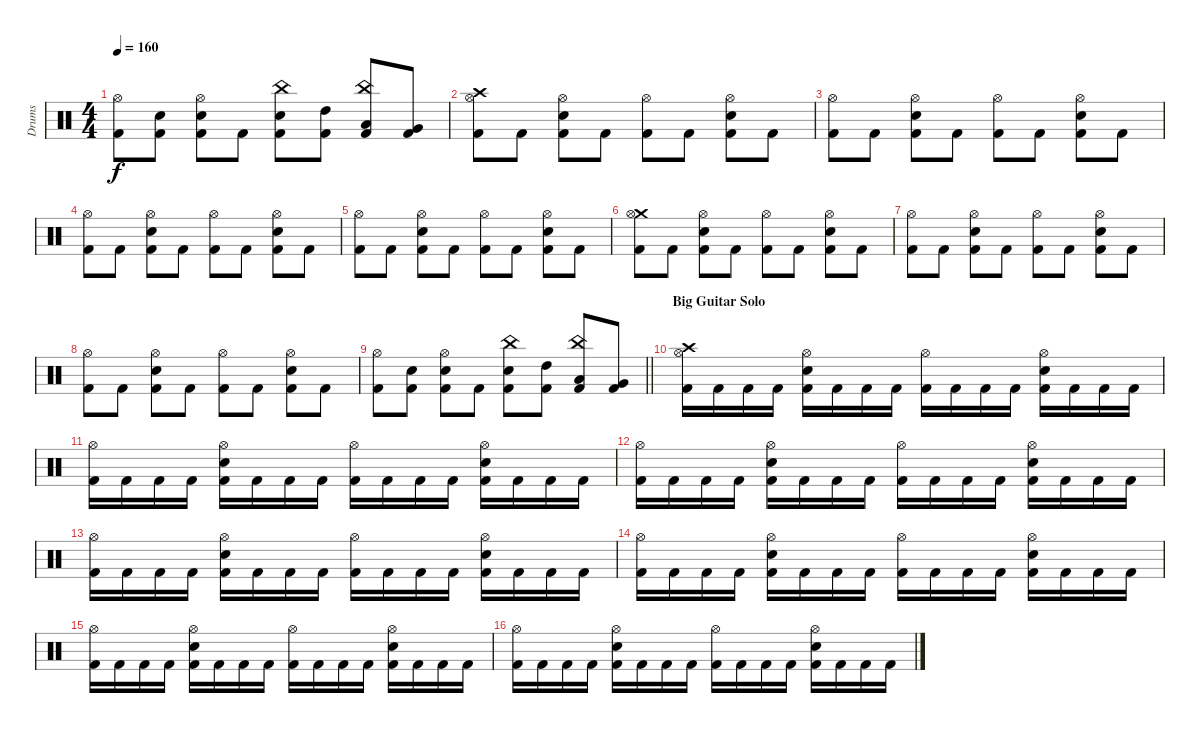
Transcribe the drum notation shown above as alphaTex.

\track ("Drums" "Drums") {instrument percussion}
\staff {score}
\articulation defaults
\ts (4 4)
\tempo 160
\clef neutral
\ks c
("Hi-Hat (open)" "Kick (hit) 2").8{dy f} ("Snare (hit) 2" "Kick (hit) 2").8 ("Hi-Hat (open)" "Snare (hit) 2" "Kick (hit) 2").8 "Kick (hit) 2".8 ("China (hit)" "Snare (hit) 2" "Kick (hit) 2").8 ("High Tom (hit)" "Kick (hit) 2").8 ("China (hit)" "Low Tom (hit)" "Kick (hit) 2").8 ("Very Low Tom (hit)" "Kick (hit) 2").8 |
("Crash high (hit)" "Hi-Hat (open)" "Kick (hit) 2").8 "Kick (hit) 2".8 ("Hi-Hat (open)" "Snare (hit) 2" "Kick (hit) 2").8 "Kick (hit) 2".8 ("Hi-Hat (open)" "Kick (hit) 2").8 "Kick (hit) 2".8 ("Hi-Hat (open)" "Snare (hit) 2" "Kick (hit) 2").8 "Kick (hit) 2".8 |
("Hi-Hat (open)" "Kick (hit) 2").8 "Kick (hit) 2".8 ("Hi-Hat (open)" "Snare (hit) 2" "Kick (hit) 2").8 "Kick (hit) 2".8 ("Hi-Hat (open)" "Kick (hit) 2").8 "Kick (hit) 2".8 ("Hi-Hat (open)" "Snare (hit) 2" "Kick (hit) 2").8 "Kick (hit) 2".8 |
("Hi-Hat (open)" "Kick (hit) 2").8 "Kick (hit) 2".8 ("Hi-Hat (open)" "Snare (hit) 2" "Kick (hit) 2").8 "Kick (hit) 2".8 ("Hi-Hat (open)" "Kick (hit) 2").8 "Kick (hit) 2".8 ("Hi-Hat (open)" "Snare (hit) 2" "Kick (hit) 2").8 "Kick (hit) 2".8 |
("Hi-Hat (open)" "Kick (hit) 2").8 "Kick (hit) 2".8 ("Hi-Hat (open)" "Snare (hit) 2" "Kick (hit) 2").8 "Kick (hit) 2".8 ("Hi-Hat (open)" "Kick (hit) 2").8 "Kick (hit) 2".8 ("Hi-Hat (open)" "Snare (hit) 2" "Kick (hit) 2").8 "Kick (hit) 2".8 |
("Crash medium (hit)" "Hi-Hat (open)" "Kick (hit) 2").8 "Kick (hit) 2".8 ("Hi-Hat (open)" "Snare (hit) 2" "Kick (hit) 2").8 "Kick (hit) 2".8 ("Hi-Hat (open)" "Kick (hit) 2").8 "Kick (hit) 2".8 ("Hi-Hat (open)" "Snare (hit) 2" "Kick (hit) 2").8 "Kick (hit) 2".8 |
("Hi-Hat (open)" "Kick (hit) 2").8 "Kick (hit) 2".8 ("Hi-Hat (open)" "Snare (hit) 2" "Kick (hit) 2").8 "Kick (hit) 2".8 ("Hi-Hat (open)" "Kick (hit) 2").8 "Kick (hit) 2".8 ("Hi-Hat (open)" "Snare (hit) 2" "Kick (hit) 2").8 "Kick (hit) 2".8 |
("Hi-Hat (open)" "Kick (hit) 2").8 "Kick (hit) 2".8 ("Hi-Hat (open)" "Snare (hit) 2" "Kick (hit) 2").8 "Kick (hit) 2".8 ("Hi-Hat (open)" "Kick (hit) 2").8 "Kick (hit) 2".8 ("Hi-Hat (open)" "Snare (hit) 2" "Kick (hit) 2").8 "Kick (hit) 2".8 |
\barLineRight lightlight
("Hi-Hat (open)" "Kick (hit) 2").8 ("Snare (hit) 2" "Kick (hit) 2").8 ("Hi-Hat (open)" "Snare (hit) 2" "Kick (hit) 2").8 "Kick (hit) 2".8 ("China (hit)" "Snare (hit) 2" "Kick (hit) 2").8 ("High Tom (hit)" "Kick (hit) 2").8 ("China (hit)" "Low Tom (hit)" "Kick (hit) 2").8 ("Very Low Tom (hit)" "Kick (hit) 2").8 |
\section ("" "Big Guitar Solo")
("Crash high (hit)" "Hi-Hat (open)" "Kick (hit) 2").16 "Kick (hit) 2".16 "Kick (hit) 2".16 "Kick (hit) 2".16 ("Hi-Hat (open)" "Snare (hit) 2" "Kick (hit) 2").16 "Kick (hit) 2".16 "Kick (hit) 2".16 "Kick (hit) 2".16 ("Hi-Hat (open)" "Kick (hit) 2").16 "Kick (hit) 2".16 "Kick (hit) 2".16 "Kick (hit) 2".16 ("Hi-Hat (open)" "Snare (hit) 2" "Kick (hit) 2").16 "Kick (hit) 2".16 "Kick (hit) 2".16 "Kick (hit) 2".16 |
("Hi-Hat (open)" "Kick (hit) 2").16 "Kick (hit) 2".16 "Kick (hit) 2".16 "Kick (hit) 2".16 ("Hi-Hat (open)" "Snare (hit) 2" "Kick (hit) 2").16 "Kick (hit) 2".16 "Kick (hit) 2".16 "Kick (hit) 2".16 ("Hi-Hat (open)" "Kick (hit) 2").16 "Kick (hit) 2".16 "Kick (hit) 2".16 "Kick (hit) 2".16 ("Hi-Hat (open)" "Snare (hit) 2" "Kick (hit) 2").16 "Kick (hit) 2".16 "Kick (hit) 2".16 "Kick (hit) 2".16 |
("Hi-Hat (open)" "Kick (hit) 2").16 "Kick (hit) 2".16 "Kick (hit) 2".16 "Kick (hit) 2".16 ("Hi-Hat (open)" "Snare (hit) 2" "Kick (hit) 2").16 "Kick (hit) 2".16 "Kick (hit) 2".16 "Kick (hit) 2".16 ("Hi-Hat (open)" "Kick (hit) 2").16 "Kick (hit) 2".16 "Kick (hit) 2".16 "Kick (hit) 2".16 ("Hi-Hat (open)" "Snare (hit) 2" "Kick (hit) 2").16 "Kick (hit) 2".16 "Kick (hit) 2".16 "Kick (hit) 2".16 |
("Hi-Hat (open)" "Kick (hit) 2").16 "Kick (hit) 2".16 "Kick (hit) 2".16 "Kick (hit) 2".16 ("Hi-Hat (open)" "Snare (hit) 2" "Kick (hit) 2").16 "Kick (hit) 2".16 "Kick (hit) 2".16 "Kick (hit) 2".16 ("Hi-Hat (open)" "Kick (hit) 2").16 "Kick (hit) 2".16 "Kick (hit) 2".16 "Kick (hit) 2".16 ("Hi-Hat (open)" "Snare (hit) 2" "Kick (hit) 2").16 "Kick (hit) 2".16 "Kick (hit) 2".16 "Kick (hit) 2".16 |
("Hi-Hat (open)" "Kick (hit) 2").16 "Kick (hit) 2".16 "Kick (hit) 2".16 "Kick (hit) 2".16 ("Hi-Hat (open)" "Snare (hit) 2" "Kick (hit) 2").16 "Kick (hit) 2".16 "Kick (hit) 2".16 "Kick (hit) 2".16 ("Hi-Hat (open)" "Kick (hit) 2").16 "Kick (hit) 2".16 "Kick (hit) 2".16 "Kick (hit) 2".16 ("Hi-Hat (open)" "Snare (hit) 2" "Kick (hit) 2").16 "Kick (hit) 2".16 "Kick (hit) 2".16 "Kick (hit) 2".16 |
("Hi-Hat (open)" "Kick (hit) 2").16 "Kick (hit) 2".16 "Kick (hit) 2".16 "Kick (hit) 2".16 ("Hi-Hat (open)" "Snare (hit) 2" "Kick (hit) 2").16 "Kick (hit) 2".16 "Kick (hit) 2".16 "Kick (hit) 2".16 ("Hi-Hat (open)" "Kick (hit) 2").16 "Kick (hit) 2".16 "Kick (hit) 2".16 "Kick (hit) 2".16 ("Hi-Hat (open)" "Snare (hit) 2" "Kick (hit) 2").16 "Kick (hit) 2".16 "Kick (hit) 2".16 "Kick (hit) 2".16 |
("Hi-Hat (open)" "Kick (hit) 2").16 "Kick (hit) 2".16 "Kick (hit) 2".16 "Kick (hit) 2".16 ("Hi-Hat (open)" "Snare (hit) 2" "Kick (hit) 2").16 "Kick (hit) 2".16 "Kick (hit) 2".16 "Kick (hit) 2".16 ("Hi-Hat (open)" "Kick (hit) 2").16 "Kick (hit) 2".16 "Kick (hit) 2".16 "Kick (hit) 2".16 ("Hi-Hat (open)" "Snare (hit) 2" "Kick (hit) 2").16 "Kick (hit) 2".16 "Kick (hit) 2".16 "Kick (hit) 2".16
